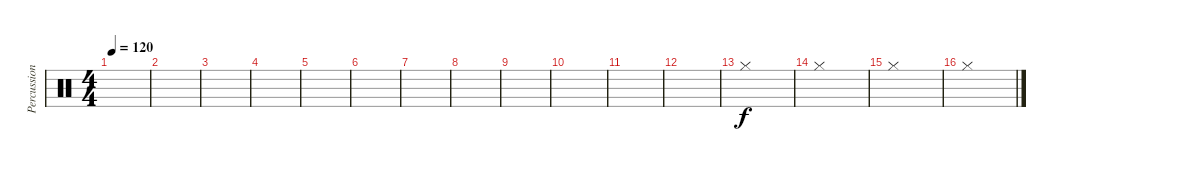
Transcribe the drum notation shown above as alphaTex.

\track ("Percussions" "Percussion") {instrument percussion}
\staff {score}
\articulation defaults
\ts (4 4)
\tempo 120
\clef neutral
\ks c
|
|
|
|
|
|
|
|
|
|
|
|
"Hi-Hat (closed)".1 |
"Hi-Hat (closed)".1 |
"Hi-Hat (closed)".1 |
"Hi-Hat (closed)".1
